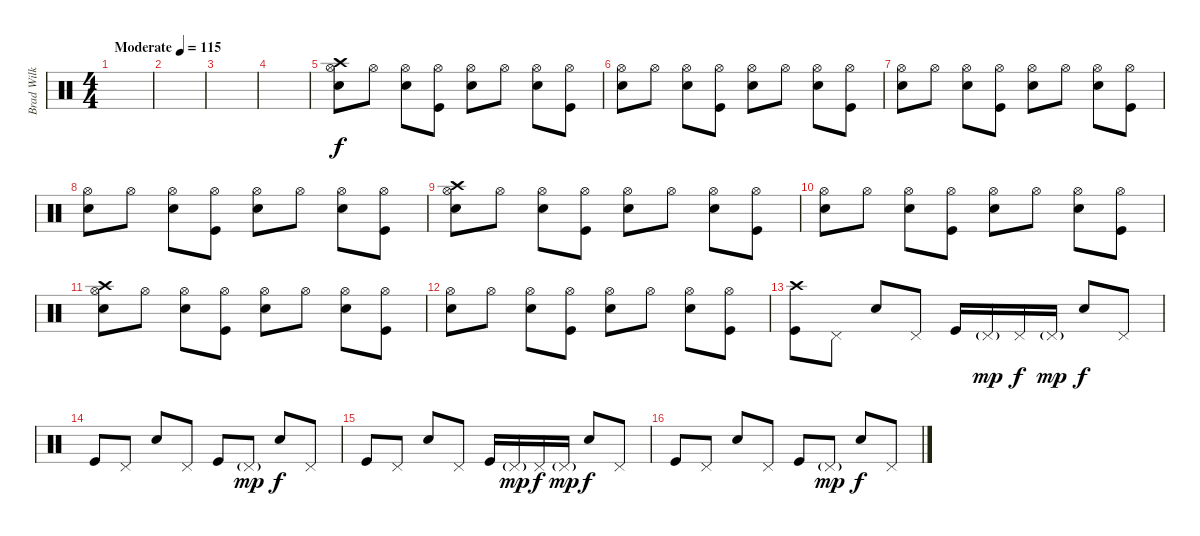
\track ("Brad Wilk - Drums" "Brad Wilk ") {instrument percussion}
\staff {score}
\articulation defaults
\ts (4 4)
\tempo (115 "Moderate")
\clef neutral
\ks c
|
|
|
|
("Crash high (hit)" "Snare (hit) 2" "Hi-Hat (open)").8 "Hi-Hat (open)".8 ("Snare (hit) 2" "Hi-Hat (open)").8 ("Hi-Hat (open)" "Kick (hit)").8 ("Snare (hit) 2" "Hi-Hat (open)").8 "Hi-Hat (open)".8 ("Snare (hit) 2" "Hi-Hat (open)").8 ("Hi-Hat (open)" "Kick (hit)").8 |
("Snare (hit) 2" "Hi-Hat (open)").8 "Hi-Hat (open)".8 ("Snare (hit) 2" "Hi-Hat (open)").8 ("Hi-Hat (open)" "Kick (hit)").8 ("Snare (hit) 2" "Hi-Hat (open)").8 "Hi-Hat (open)".8 ("Snare (hit) 2" "Hi-Hat (open)").8 ("Hi-Hat (open)" "Kick (hit)").8 |
("Snare (hit) 2" "Hi-Hat (open)").8 "Hi-Hat (open)".8 ("Snare (hit) 2" "Hi-Hat (open)").8 ("Hi-Hat (open)" "Kick (hit)").8 ("Snare (hit) 2" "Hi-Hat (open)").8 "Hi-Hat (open)".8 ("Snare (hit) 2" "Hi-Hat (open)").8 ("Hi-Hat (open)" "Kick (hit)").8 |
("Snare (hit) 2" "Hi-Hat (open)").8 "Hi-Hat (open)".8 ("Snare (hit) 2" "Hi-Hat (open)").8 ("Hi-Hat (open)" "Kick (hit)").8 ("Snare (hit) 2" "Hi-Hat (open)").8 "Hi-Hat (open)".8 ("Snare (hit) 2" "Hi-Hat (open)").8 ("Hi-Hat (open)" "Kick (hit)").8 |
("Crash high (hit)" "Snare (hit) 2" "Hi-Hat (open)").8 "Hi-Hat (open)".8 ("Snare (hit) 2" "Hi-Hat (open)").8 ("Hi-Hat (open)" "Kick (hit)").8 ("Snare (hit) 2" "Hi-Hat (open)").8 "Hi-Hat (open)".8 ("Snare (hit) 2" "Hi-Hat (open)").8 ("Hi-Hat (open)" "Kick (hit)").8 |
("Snare (hit) 2" "Hi-Hat (open)").8 "Hi-Hat (open)".8 ("Snare (hit) 2" "Hi-Hat (open)").8 ("Hi-Hat (open)" "Kick (hit)").8 ("Snare (hit) 2" "Hi-Hat (open)").8 "Hi-Hat (open)".8 ("Snare (hit) 2" "Hi-Hat (open)").8 ("Hi-Hat (open)" "Kick (hit)").8 |
("Crash high (hit)" "Snare (hit) 2" "Hi-Hat (open)").8 "Hi-Hat (open)".8 ("Snare (hit) 2" "Hi-Hat (open)").8 ("Hi-Hat (open)" "Kick (hit)").8 ("Snare (hit) 2" "Hi-Hat (open)").8 "Hi-Hat (open)".8 ("Snare (hit) 2" "Hi-Hat (open)").8 ("Hi-Hat (open)" "Kick (hit)").8 |
("Snare (hit) 2" "Hi-Hat (open)").8 "Hi-Hat (open)".8 ("Snare (hit) 2" "Hi-Hat (open)").8 ("Hi-Hat (open)" "Kick (hit)").8 ("Snare (hit) 2" "Hi-Hat (open)").8 "Hi-Hat (open)".8 ("Snare (hit) 2" "Hi-Hat (open)").8 ("Hi-Hat (open)" "Kick (hit)").8 |
("Crash high (hit)" "Kick (hit)").8 "Pedal Hi-Hat (hit)".8 "Snare (hit) 2".8 "Pedal Hi-Hat (hit)".8 "Kick (hit)".16 "Pedal Hi-Hat (hit)"{g}.16{dy mp} "Pedal Hi-Hat (hit)".16{dy f} "Pedal Hi-Hat (hit)"{g}.16{dy mp} "Snare (hit) 2".8{dy f} "Pedal Hi-Hat (hit)".8 |
"Kick (hit)".8 "Pedal Hi-Hat (hit)".8 "Snare (hit) 2".8 "Pedal Hi-Hat (hit)".8 "Kick (hit)".8 "Pedal Hi-Hat (hit)"{g}.8{dy mp} "Snare (hit) 2".8{dy f} "Pedal Hi-Hat (hit)".8 |
"Kick (hit)".8 "Pedal Hi-Hat (hit)".8 "Snare (hit) 2".8 "Pedal Hi-Hat (hit)".8 "Kick (hit)".16 "Pedal Hi-Hat (hit)"{g}.16{dy mp} "Pedal Hi-Hat (hit)".16{dy f} "Pedal Hi-Hat (hit)"{g}.16{dy mp} "Snare (hit) 2".8{dy f} "Pedal Hi-Hat (hit)".8 |
"Kick (hit)".8 "Pedal Hi-Hat (hit)".8 "Snare (hit) 2".8 "Pedal Hi-Hat (hit)".8 "Kick (hit)".8 "Pedal Hi-Hat (hit)"{g}.8{dy mp} "Snare (hit) 2".8{dy f} "Pedal Hi-Hat (hit)".8
